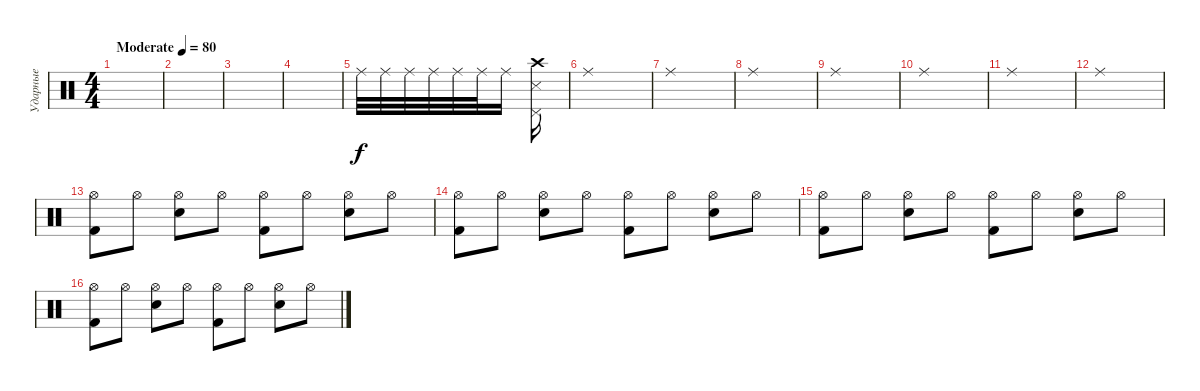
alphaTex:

\track ("Ударные" "Ударные") {instrument percussion}
\staff {score}
\articulation defaults
\ts (4 4)
\tempo (80 "Moderate")
\clef neutral
\ks c
|
|
|
|
"Ride (middle)".32 "Ride (middle)".32 "Ride (middle)".32 "Ride (middle)".32 "Ride (middle)".32 "Ride (middle)".32 "Ride (middle)".16 ("Pedal Hi-Hat (hit)" "Metronome (hit)" "Crash high (hit)").16 |
"Ride (middle)".1 |
"Ride (middle)".1 |
"Ride (middle)".1 |
"Ride (middle)".1 |
"Ride (middle)".1 |
"Ride (middle)".1 |
"Ride (middle)".1 |
("Hi-Hat (open)" "Kick (hit) 2").8 "Hi-Hat (open)".8 ("Hi-Hat (open)" "Snare (hit) 2").8 "Hi-Hat (open)".8 ("Hi-Hat (open)" "Kick (hit) 2").8 "Hi-Hat (open)".8 ("Hi-Hat (open)" "Snare (hit) 2").8 "Hi-Hat (open)".8 |
("Hi-Hat (open)" "Kick (hit) 2").8 "Hi-Hat (open)".8 ("Hi-Hat (open)" "Snare (hit) 2").8 "Hi-Hat (open)".8 ("Hi-Hat (open)" "Kick (hit) 2").8 "Hi-Hat (open)".8 ("Hi-Hat (open)" "Snare (hit) 2").8 "Hi-Hat (open)".8 |
("Hi-Hat (open)" "Kick (hit) 2").8 "Hi-Hat (open)".8 ("Hi-Hat (open)" "Snare (hit) 2").8 "Hi-Hat (open)".8 ("Hi-Hat (open)" "Kick (hit) 2").8 "Hi-Hat (open)".8 ("Hi-Hat (open)" "Snare (hit) 2").8 "Hi-Hat (open)".8 |
("Hi-Hat (open)" "Kick (hit) 2").8 "Hi-Hat (open)".8 ("Hi-Hat (open)" "Snare (hit) 2").8 "Hi-Hat (open)".8 ("Hi-Hat (open)" "Kick (hit) 2").8 "Hi-Hat (open)".8 ("Hi-Hat (open)" "Snare (hit) 2").8 "Hi-Hat (open)".8
